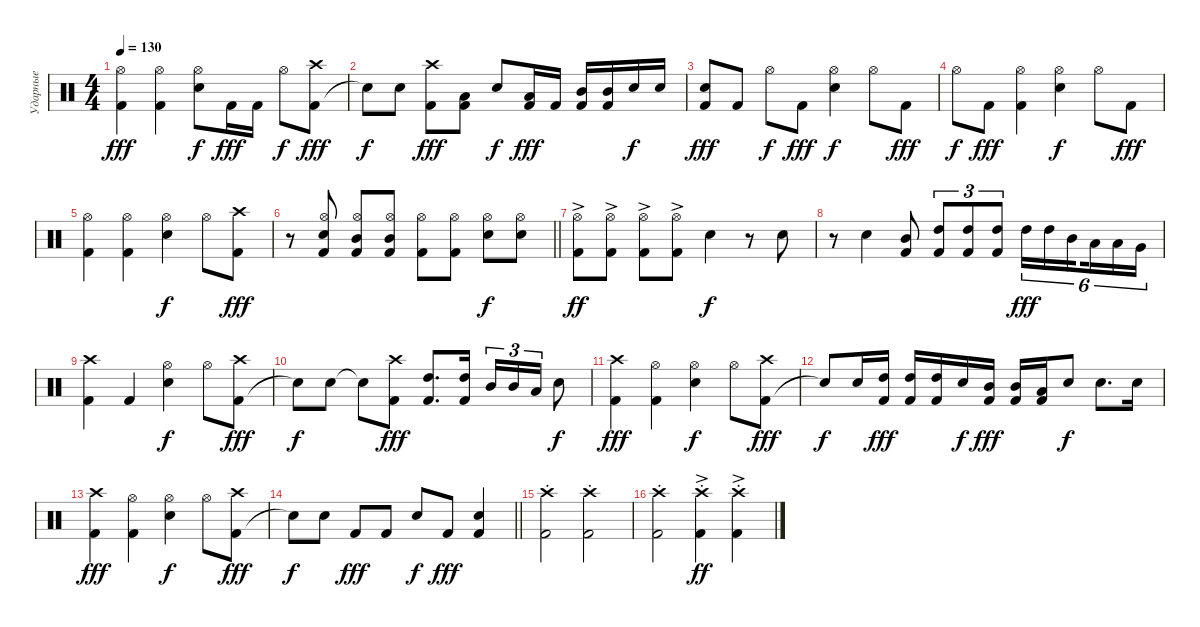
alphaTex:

\track ("Ударные" "Ударные") {instrument percussion}
\staff {score}
\articulation defaults
\ts (4 4)
\tempo 130
\clef neutral
\ks c
("Kick (hit) 2" "Hi-Hat (open)").4{dy fff} ("Kick (hit) 2" "Hi-Hat (open)").4 ("Snare (hit) 2" "Hi-Hat (open)").8{dy f} "Kick (hit) 2".16{dy fff} "Kick (hit) 2".16 "Hi-Hat (open)".8{dy f} ("Kick (hit) 2" "Crash high (hit)").8{dy fff} |
"Snare (hit)"{t}.8{dy f} "Snare (hit) 2".8 ("Kick (hit) 2" "Crash high (hit)").8{dy fff} ("Kick (hit) 2" "Low Tom (hit)").8 "Snare (hit) 2".8{dy f} ("Kick (hit) 2" "Low Tom (hit)").16{dy fff} "Kick (hit) 2".16 ("Kick (hit) 2" "Mid Tom (hit)").16 ("Kick (hit) 2" "Mid Tom (hit)").16 "Electric Snare (hit)".16{dy f} "Electric Snare (hit)".16 |
("Kick (hit) 2" "Snare (hit) 2").8{dy fff} "Kick (hit) 2".8 "Hi-Hat (open)".8{dy f} "Kick (hit) 2".8{dy fff} ("Snare (hit) 2" "Hi-Hat (open)").4{dy f} "Hi-Hat (open)".8 "Kick (hit) 2".8{dy fff} |
"Hi-Hat (open)".8{dy f} "Kick (hit) 2".8{dy fff} ("Kick (hit) 2" "Hi-Hat (open)").4 ("Snare (hit) 2" "Hi-Hat (open)").4{dy f} "Hi-Hat (open)".8 "Kick (hit) 2".8{dy fff} |
("Kick (hit) 2" "Hi-Hat (open)").4 ("Kick (hit) 2" "Hi-Hat (open)").4 ("Snare (hit) 2" "Hi-Hat (open)").4{dy f} "Hi-Hat (open)".8 ("Kick (hit) 2" "Crash high (hit)").8{dy fff} |
\barLineRight lightlight
r.8 ("Kick (hit) 2" "Snare (hit) 2" "Hi-Hat (open)").8 ("Kick (hit) 2" "Mid Tom (hit)" "Hi-Hat (open)").8 ("Kick (hit) 2" "Mid Tom (hit)" "Hi-Hat (open)").8 ("Kick (hit) 2" "Hi-Hat (open)").8 ("Kick (hit) 2" "Hi-Hat (open)").8 ("Snare (hit) 2" "Hi-Hat (open)").8{dy f} ("Snare (hit) 2" "Hi-Hat (open)").8 |
("Kick (hit) 2" "Hi-Hat (open)"{ac}).8{dy ff} ("Kick (hit) 2" "Hi-Hat (open)"{ac}).8 ("Kick (hit) 2" "Hi-Hat (open)"{ac}).8 ("Kick (hit) 2" "Hi-Hat (open)"{ac}).8 "Snare (hit) 2".4{dy f} r.8 "Snare (hit) 2".8 |
r.8 "Snare (hit) 2".4 ("Kick (hit) 2" "Mid Tom (hit)").8 ("Kick (hit) 2" "High Tom (hit)").8{tu (3 2)} ("Kick (hit) 2" "High Tom (hit)").8{tu (3 2)} ("Kick (hit) 2" "High Tom (hit)").8{tu (3 2)} "High Tom (hit)".16{tu (6 4) dy fff} "High Tom (hit)".16{tu (6 4)} "Mid Tom (hit)".16{tu (6 4) beam splitsecondary} "Low Tom (hit)".16{tu (6 4)} "Low Tom (hit)".16{tu (6 4)} "Very Low Tom (hit)".16{tu (6 4)} |
("Kick (hit) 2" "Crash high (hit)").4 "Kick (hit) 2".4 ("Snare (hit) 2" "Hi-Hat (open)").4{dy f} "Hi-Hat (open)".8 ("Kick (hit) 2" "Crash high (hit)").8{dy fff} |
"Snare (hit)"{t}.8{dy f} "Snare (hit) 2".8 "Snare (hit)"{t}.8 ("Kick (hit) 2" "Crash high (hit)").8{dy fff} ("Kick (hit) 2" "High Tom (hit)").8{d} ("Kick (hit) 2" "High Tom (hit)").16 "Mid Tom (hit)".16{tu (3 2)} "Mid Tom (hit)".16{tu (3 2)} "Low Tom (hit)".16{tu (3 2)} "Snare (hit) 2".8{dy f} |
("Kick (hit) 2" "Crash high (hit)").4{dy fff} ("Kick (hit) 2" "Hi-Hat (open)").4 ("Snare (hit) 2" "Hi-Hat (open)").4{dy f} "Hi-Hat (open)".8 ("Kick (hit) 2" "Crash high (hit)").8{dy fff} |
"Snare (hit)"{t}.8{dy f} "Snare (hit) 2".16 ("Kick (hit) 2" "High Tom (hit)").16{dy fff} ("Kick (hit) 2" "High Tom (hit)").16 ("Kick (hit) 2" "High Tom (hit)").16 "Snare (hit) 2".16{dy f} ("Kick (hit) 2" "Mid Tom (hit)").16{dy fff} ("Kick (hit) 2" "Mid Tom (hit)").16 ("Kick (hit) 2" "Low Tom (hit)").16 "Snare (hit) 2".8{dy f} "Snare (hit) 2".8{d} "Snare (hit) 2".16 |
("Kick (hit) 2" "Crash high (hit)").4{dy fff} ("Kick (hit) 2" "Hi-Hat (open)").4 ("Snare (hit) 2" "Hi-Hat (open)").4{dy f} "Hi-Hat (open)".8 ("Kick (hit) 2" "Crash high (hit)").8{dy fff} |
\barLineRight lightlight "Snare (hit)"{t}.8{dy f} "Snare (hit) 2".8 "Kick (hit) 2".8{dy fff} "Kick (hit) 2".8 "Snare (hit) 2".8{dy f} "Kick (hit) 2".8{dy fff}
("Kick (hit) 2" "Snare (hit) 2").4 |
("Kick (hit) 2"{st} "Crash high (hit)"{st}).2 ("Kick (hit) 2"{st} "Crash high (hit)"{st}).2 |
("Kick (hit) 2"{st} "Crash high (hit)"{st}).2 ("Kick (hit) 2"{st} "Crash high (hit)"{ac st}).4{dy ff} ("Kick (hit) 2"{st} "Crash high (hit)"{ac st}).4
